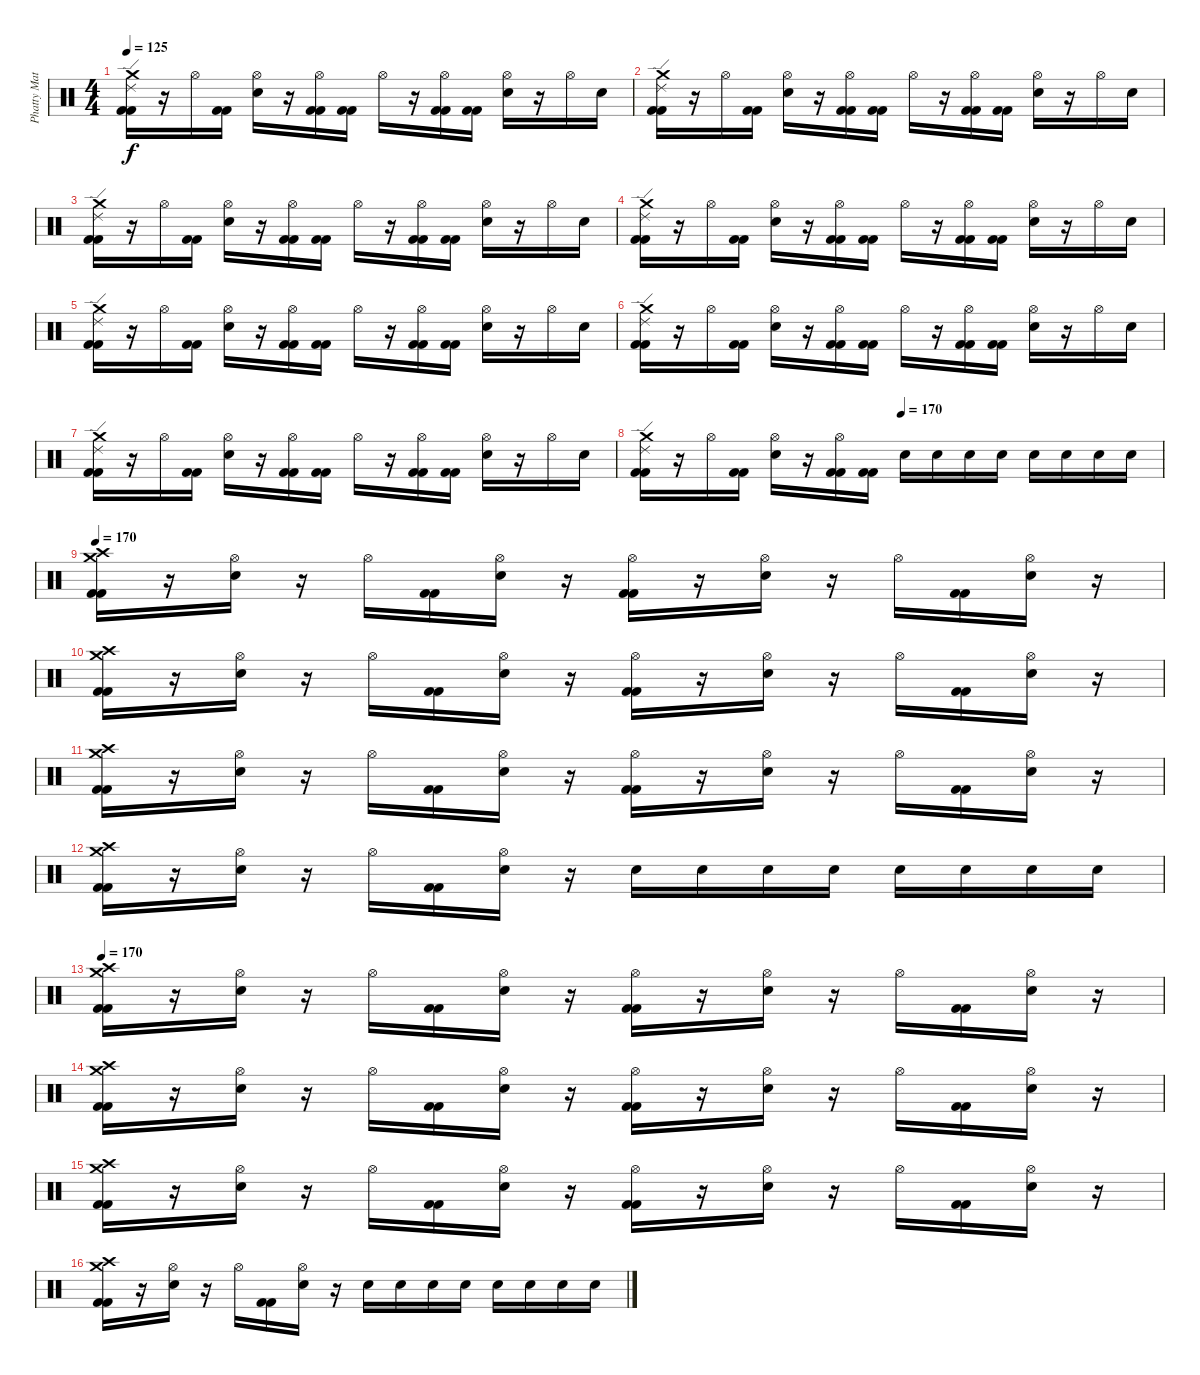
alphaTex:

\track ("Phatty Matty Withrow (Drums)" "Phatty Mat") {instrument percussion}
\staff {score}
\articulation defaults
\ts (4 4)
\tempo 125
\clef neutral
\ks c
("Crash medium (hit)" "Ride (edge) 2" "Kick (hit) 2" "Kick (hit) 2").16{dy f} r.16 "Hi-Hat (open)".16 ("Kick (hit) 2" "Kick (hit) 2").16 ("Hi-Hat (open)" "Electric Snare (hit)").16 r.16 ("Hi-Hat (open)" "Kick (hit) 2" "Kick (hit) 2").16 ("Kick (hit) 2" "Kick (hit) 2").16 "Hi-Hat (open)".16 r.16 ("Hi-Hat (open)" "Kick (hit) 2" "Kick (hit) 2").16 ("Kick (hit) 2" "Kick (hit) 2").16 ("Hi-Hat (open)" "Electric Snare (hit)").16 r.16 "Hi-Hat (open)".16 "Electric Snare (hit)".16 |
("Crash medium (hit)" "Ride (edge) 2" "Kick (hit) 2" "Kick (hit) 2").16 r.16 "Hi-Hat (open)".16 ("Kick (hit) 2" "Kick (hit) 2").16 ("Hi-Hat (open)" "Electric Snare (hit)").16 r.16 ("Hi-Hat (open)" "Kick (hit) 2" "Kick (hit) 2").16 ("Kick (hit) 2" "Kick (hit) 2").16 "Hi-Hat (open)".16 r.16 ("Hi-Hat (open)" "Kick (hit) 2" "Kick (hit) 2").16 ("Kick (hit) 2" "Kick (hit) 2").16 ("Hi-Hat (open)" "Electric Snare (hit)").16 r.16 "Hi-Hat (open)".16 "Electric Snare (hit)".16 |
("Crash medium (hit)" "Ride (edge) 2" "Kick (hit) 2" "Kick (hit) 2").16 r.16 "Hi-Hat (open)".16 ("Kick (hit) 2" "Kick (hit) 2").16 ("Hi-Hat (open)" "Electric Snare (hit)").16 r.16 ("Hi-Hat (open)" "Kick (hit) 2" "Kick (hit) 2").16 ("Kick (hit) 2" "Kick (hit) 2").16 "Hi-Hat (open)".16 r.16 ("Hi-Hat (open)" "Kick (hit) 2" "Kick (hit) 2").16 ("Kick (hit) 2" "Kick (hit) 2").16 ("Hi-Hat (open)" "Electric Snare (hit)").16 r.16 "Hi-Hat (open)".16 "Electric Snare (hit)".16 |
("Crash medium (hit)" "Ride (edge) 2" "Kick (hit) 2" "Kick (hit) 2").16 r.16 "Hi-Hat (open)".16 ("Kick (hit) 2" "Kick (hit) 2").16 ("Hi-Hat (open)" "Electric Snare (hit)").16 r.16 ("Hi-Hat (open)" "Kick (hit) 2" "Kick (hit) 2").16 ("Kick (hit) 2" "Kick (hit) 2").16 "Hi-Hat (open)".16 r.16 ("Hi-Hat (open)" "Kick (hit) 2" "Kick (hit) 2").16 ("Kick (hit) 2" "Kick (hit) 2").16 ("Hi-Hat (open)" "Electric Snare (hit)").16 r.16 "Hi-Hat (open)".16 "Electric Snare (hit)".16 |
("Crash medium (hit)" "Ride (edge) 2" "Kick (hit) 2" "Kick (hit) 2").16 r.16 "Hi-Hat (open)".16 ("Kick (hit) 2" "Kick (hit) 2").16 ("Hi-Hat (open)" "Electric Snare (hit)").16 r.16 ("Hi-Hat (open)" "Kick (hit) 2" "Kick (hit) 2").16 ("Kick (hit) 2" "Kick (hit) 2").16 "Hi-Hat (open)".16 r.16 ("Hi-Hat (open)" "Kick (hit) 2" "Kick (hit) 2").16 ("Kick (hit) 2" "Kick (hit) 2").16 ("Hi-Hat (open)" "Electric Snare (hit)").16 r.16 "Hi-Hat (open)".16 "Electric Snare (hit)".16 |
("Crash medium (hit)" "Ride (edge) 2" "Kick (hit) 2" "Kick (hit) 2").16 r.16 "Hi-Hat (open)".16 ("Kick (hit) 2" "Kick (hit) 2").16 ("Hi-Hat (open)" "Electric Snare (hit)").16 r.16 ("Hi-Hat (open)" "Kick (hit) 2" "Kick (hit) 2").16 ("Kick (hit) 2" "Kick (hit) 2").16 "Hi-Hat (open)".16 r.16 ("Hi-Hat (open)" "Kick (hit) 2" "Kick (hit) 2").16 ("Kick (hit) 2" "Kick (hit) 2").16 ("Hi-Hat (open)" "Electric Snare (hit)").16 r.16 "Hi-Hat (open)".16 "Electric Snare (hit)".16 |
("Crash medium (hit)" "Ride (edge) 2" "Kick (hit) 2" "Kick (hit) 2").16 r.16 "Hi-Hat (open)".16 ("Kick (hit) 2" "Kick (hit) 2").16 ("Hi-Hat (open)" "Electric Snare (hit)").16 r.16 ("Hi-Hat (open)" "Kick (hit) 2" "Kick (hit) 2").16 ("Kick (hit) 2" "Kick (hit) 2").16 "Hi-Hat (open)".16 r.16 ("Hi-Hat (open)" "Kick (hit) 2" "Kick (hit) 2").16 ("Kick (hit) 2" "Kick (hit) 2").16 ("Hi-Hat (open)" "Electric Snare (hit)").16 r.16 "Hi-Hat (open)".16 "Electric Snare (hit)".16 |
\tempo (170 0.5)
("Crash medium (hit)" "Ride (edge) 2" "Kick (hit) 2" "Kick (hit) 2").16 r.16 "Hi-Hat (open)".16 ("Kick (hit) 2" "Kick (hit) 2").16 ("Hi-Hat (open)" "Electric Snare (hit)").16 r.16 ("Hi-Hat (open)" "Kick (hit) 2" "Kick (hit) 2").16 ("Kick (hit) 2" "Kick (hit) 2").16 "Electric Snare (hit)".16 "Electric Snare (hit)".16 "Electric Snare (hit)".16 "Electric Snare (hit)".16 "Electric Snare (hit)".16 "Electric Snare (hit)".16 "Electric Snare (hit)".16 "Electric Snare (hit)".16 |
\tempo 170
("Crash medium (hit)" "Crash high (hit)" "Kick (hit) 2" "Kick (hit) 2").16 r.16 ("Hi-Hat (open)" "Electric Snare (hit)").16 r.16 "Hi-Hat (open)".16 ("Kick (hit) 2" "Kick (hit) 2").16 ("Hi-Hat (open)" "Electric Snare (hit)").16 r.16 ("Hi-Hat (open)" "Kick (hit) 2" "Kick (hit) 2").16 r.16 ("Hi-Hat (open)" "Electric Snare (hit)").16 r.16 "Hi-Hat (open)".16 ("Kick (hit) 2" "Kick (hit) 2").16 ("Hi-Hat (open)" "Electric Snare (hit)").16 r.16 |
("Crash medium (hit)" "Crash high (hit)" "Kick (hit) 2" "Kick (hit) 2").16 r.16 ("Hi-Hat (open)" "Electric Snare (hit)").16 r.16 "Hi-Hat (open)".16 ("Kick (hit) 2" "Kick (hit) 2").16 ("Hi-Hat (open)" "Electric Snare (hit)").16 r.16 ("Hi-Hat (open)" "Kick (hit) 2" "Kick (hit) 2").16 r.16 ("Hi-Hat (open)" "Electric Snare (hit)").16 r.16 "Hi-Hat (open)".16 ("Kick (hit) 2" "Kick (hit) 2").16 ("Hi-Hat (open)" "Electric Snare (hit)").16 r.16 |
("Crash medium (hit)" "Crash high (hit)" "Kick (hit) 2" "Kick (hit) 2").16 r.16 ("Hi-Hat (open)" "Electric Snare (hit)").16 r.16 "Hi-Hat (open)".16 ("Kick (hit) 2" "Kick (hit) 2").16 ("Hi-Hat (open)" "Electric Snare (hit)").16 r.16 ("Hi-Hat (open)" "Kick (hit) 2" "Kick (hit) 2").16 r.16 ("Hi-Hat (open)" "Electric Snare (hit)").16 r.16 "Hi-Hat (open)".16 ("Kick (hit) 2" "Kick (hit) 2").16 ("Hi-Hat (open)" "Electric Snare (hit)").16 r.16 |
("Crash medium (hit)" "Crash high (hit)" "Kick (hit) 2" "Kick (hit) 2").16 r.16 ("Hi-Hat (open)" "Electric Snare (hit)").16 r.16 "Hi-Hat (open)".16 ("Kick (hit) 2" "Kick (hit) 2").16 ("Hi-Hat (open)" "Electric Snare (hit)").16 r.16 "Electric Snare (hit)".16 "Electric Snare (hit)".16 "Electric Snare (hit)".16 "Electric Snare (hit)".16 "Electric Snare (hit)".16 "Electric Snare (hit)".16 "Electric Snare (hit)".16 "Electric Snare (hit)".16 |
\tempo 170
("Crash medium (hit)" "Crash high (hit)" "Kick (hit) 2" "Kick (hit) 2").16 r.16 ("Hi-Hat (open)" "Electric Snare (hit)").16 r.16 "Hi-Hat (open)".16 ("Kick (hit) 2" "Kick (hit) 2").16 ("Hi-Hat (open)" "Electric Snare (hit)").16 r.16 ("Hi-Hat (open)" "Kick (hit) 2" "Kick (hit) 2").16 r.16 ("Hi-Hat (open)" "Electric Snare (hit)").16 r.16 "Hi-Hat (open)".16 ("Kick (hit) 2" "Kick (hit) 2").16 ("Hi-Hat (open)" "Electric Snare (hit)").16 r.16 |
("Crash medium (hit)" "Crash high (hit)" "Kick (hit) 2" "Kick (hit) 2").16 r.16 ("Hi-Hat (open)" "Electric Snare (hit)").16 r.16 "Hi-Hat (open)".16 ("Kick (hit) 2" "Kick (hit) 2").16 ("Hi-Hat (open)" "Electric Snare (hit)").16 r.16 ("Hi-Hat (open)" "Kick (hit) 2" "Kick (hit) 2").16 r.16 ("Hi-Hat (open)" "Electric Snare (hit)").16 r.16 "Hi-Hat (open)".16 ("Kick (hit) 2" "Kick (hit) 2").16 ("Hi-Hat (open)" "Electric Snare (hit)").16 r.16 |
("Crash medium (hit)" "Crash high (hit)" "Kick (hit) 2" "Kick (hit) 2").16 r.16 ("Hi-Hat (open)" "Electric Snare (hit)").16 r.16 "Hi-Hat (open)".16 ("Kick (hit) 2" "Kick (hit) 2").16 ("Hi-Hat (open)" "Electric Snare (hit)").16 r.16 ("Hi-Hat (open)" "Kick (hit) 2" "Kick (hit) 2").16 r.16 ("Hi-Hat (open)" "Electric Snare (hit)").16 r.16 "Hi-Hat (open)".16 ("Kick (hit) 2" "Kick (hit) 2").16 ("Hi-Hat (open)" "Electric Snare (hit)").16 r.16 |
("Crash medium (hit)" "Crash high (hit)" "Kick (hit) 2" "Kick (hit) 2").16 r.16 ("Hi-Hat (open)" "Electric Snare (hit)").16 r.16 "Hi-Hat (open)".16 ("Kick (hit) 2" "Kick (hit) 2").16 ("Hi-Hat (open)" "Electric Snare (hit)").16 r.16 "Electric Snare (hit)".16 "Electric Snare (hit)".16 "Electric Snare (hit)".16 "Electric Snare (hit)".16 "Electric Snare (hit)".16 "Electric Snare (hit)".16 "Electric Snare (hit)".16 "Electric Snare (hit)".16
